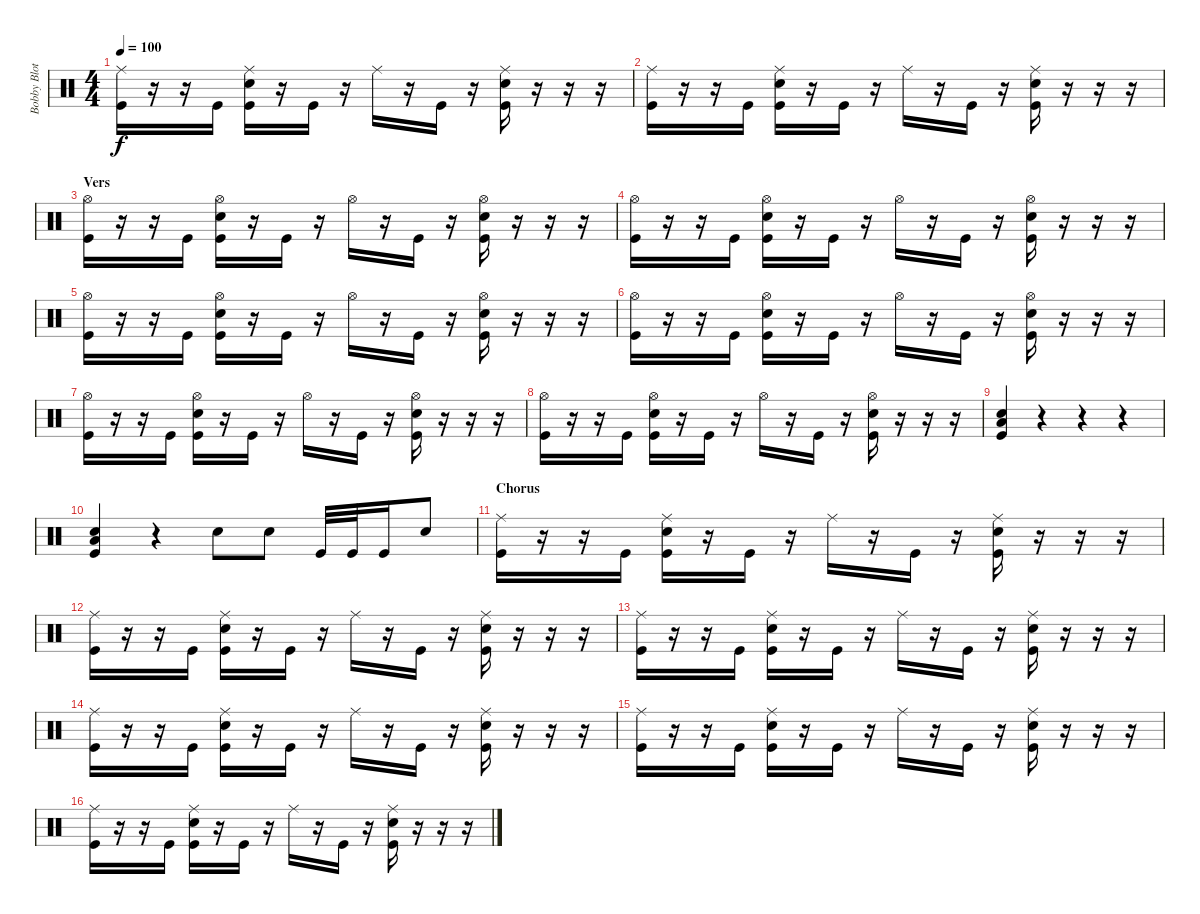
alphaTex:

\track ("Bobby Blotzer - Drums" "Bobby Blot") {instrument percussion}
\staff {score}
\articulation defaults
\ts (4 4)
\tempo 100
\clef neutral
\ks c
("Ride (middle)" "Kick (hit)").16{dy f} r.16 r.16 "Kick (hit)".16 ("Ride (middle)" "Snare (hit) 2" "Kick (hit)").16 r.16 "Kick (hit)".16 r.16 "Ride (middle)".16 r.16 "Kick (hit)".16 r.16 ("Ride (middle)" "Snare (hit) 2" "Kick (hit)").16 r.16 r.16 r.16 |
("Ride (middle)" "Kick (hit)").16 r.16 r.16 "Kick (hit)".16 ("Ride (middle)" "Snare (hit) 2" "Kick (hit)").16 r.16 "Kick (hit)".16 r.16 "Ride (middle)".16 r.16 "Kick (hit)".16 r.16 ("Ride (middle)" "Snare (hit) 2" "Kick (hit)").16 r.16 r.16 r.16 |
\section ("" "Vers")
("Hi-Hat (open)" "Kick (hit)").16 r.16 r.16 "Kick (hit)".16 ("Hi-Hat (open)" "Snare (hit) 2" "Kick (hit)").16 r.16 "Kick (hit)".16 r.16 "Hi-Hat (open)".16 r.16 "Kick (hit)".16 r.16 ("Hi-Hat (open)" "Snare (hit) 2" "Kick (hit)").16 r.16 r.16 r.16 |
("Hi-Hat (open)" "Kick (hit)").16 r.16 r.16 "Kick (hit)".16 ("Hi-Hat (open)" "Snare (hit) 2" "Kick (hit)").16 r.16 "Kick (hit)".16 r.16 "Hi-Hat (open)".16 r.16 "Kick (hit)".16 r.16 ("Hi-Hat (open)" "Snare (hit) 2" "Kick (hit)").16 r.16 r.16 r.16 |
("Hi-Hat (open)" "Kick (hit)").16 r.16 r.16 "Kick (hit)".16 ("Hi-Hat (open)" "Snare (hit) 2" "Kick (hit)").16 r.16 "Kick (hit)".16 r.16 "Hi-Hat (open)".16 r.16 "Kick (hit)".16 r.16 ("Hi-Hat (open)" "Snare (hit) 2" "Kick (hit)").16 r.16 r.16 r.16 |
("Hi-Hat (open)" "Kick (hit)").16 r.16 r.16 "Kick (hit)".16 ("Hi-Hat (open)" "Snare (hit) 2" "Kick (hit)").16 r.16 "Kick (hit)".16 r.16 "Hi-Hat (open)".16 r.16 "Kick (hit)".16 r.16 ("Hi-Hat (open)" "Snare (hit) 2" "Kick (hit)").16 r.16 r.16 r.16 |
("Hi-Hat (open)" "Kick (hit)").16 r.16 r.16 "Kick (hit)".16 ("Hi-Hat (open)" "Snare (hit) 2" "Kick (hit)").16 r.16 "Kick (hit)".16 r.16 "Hi-Hat (open)".16 r.16 "Kick (hit)".16 r.16 ("Hi-Hat (open)" "Snare (hit) 2" "Kick (hit)").16 r.16 r.16 r.16 |
("Hi-Hat (open)" "Kick (hit)").16 r.16 r.16 "Kick (hit)".16 ("Hi-Hat (open)" "Snare (hit) 2" "Kick (hit)").16 r.16 "Kick (hit)".16 r.16 "Hi-Hat (open)".16 r.16 "Kick (hit)".16 r.16 ("Hi-Hat (open)" "Snare (hit) 2" "Kick (hit)").16 r.16 r.16 r.16 |
("Low Tom (hit)" "Snare (hit) 2" "Kick (hit)").4 r.4 r.4 r.4 |
("Low Tom (hit)" "Snare (hit) 2" "Kick (hit)").4 r.4 "Snare (hit) 2".8 "Snare (hit) 2".8 "Kick (hit)".32 "Kick (hit)".32 "Kick (hit)".16 "Snare (hit) 2".8 |
\section ("" "Chorus")
("Ride (middle)" "Kick (hit)").16 r.16 r.16 "Kick (hit)".16 ("Ride (middle)" "Snare (hit) 2" "Kick (hit)").16 r.16 "Kick (hit)".16 r.16 "Ride (middle)".16 r.16 "Kick (hit)".16 r.16 ("Ride (middle)" "Snare (hit) 2" "Kick (hit)").16 r.16 r.16 r.16 |
("Ride (middle)" "Kick (hit)").16 r.16 r.16 "Kick (hit)".16 ("Ride (middle)" "Snare (hit) 2" "Kick (hit)").16 r.16 "Kick (hit)".16 r.16 "Ride (middle)".16 r.16 "Kick (hit)".16 r.16 ("Ride (middle)" "Snare (hit) 2" "Kick (hit)").16 r.16 r.16 r.16 |
("Ride (middle)" "Kick (hit)").16 r.16 r.16 "Kick (hit)".16 ("Ride (middle)" "Snare (hit) 2" "Kick (hit)").16 r.16 "Kick (hit)".16 r.16 "Ride (middle)".16 r.16 "Kick (hit)".16 r.16 ("Ride (middle)" "Snare (hit) 2" "Kick (hit)").16 r.16 r.16 r.16 |
("Ride (middle)" "Kick (hit)").16 r.16 r.16 "Kick (hit)".16 ("Ride (middle)" "Snare (hit) 2" "Kick (hit)").16 r.16 "Kick (hit)".16 r.16 "Ride (middle)".16 r.16 "Kick (hit)".16 r.16 ("Ride (middle)" "Snare (hit) 2" "Kick (hit)").16 r.16 r.16 r.16 |
("Ride (middle)" "Kick (hit)").16 r.16 r.16 "Kick (hit)".16 ("Ride (middle)" "Snare (hit) 2" "Kick (hit)").16 r.16 "Kick (hit)".16 r.16 "Ride (middle)".16 r.16 "Kick (hit)".16 r.16 ("Ride (middle)" "Snare (hit) 2" "Kick (hit)").16 r.16 r.16 r.16 |
("Ride (middle)" "Kick (hit)").16 r.16 r.16 "Kick (hit)".16 ("Ride (middle)" "Snare (hit) 2" "Kick (hit)").16 r.16 "Kick (hit)".16 r.16 "Ride (middle)".16 r.16 "Kick (hit)".16 r.16 ("Ride (middle)" "Snare (hit) 2" "Kick (hit)").16 r.16 r.16 r.16
